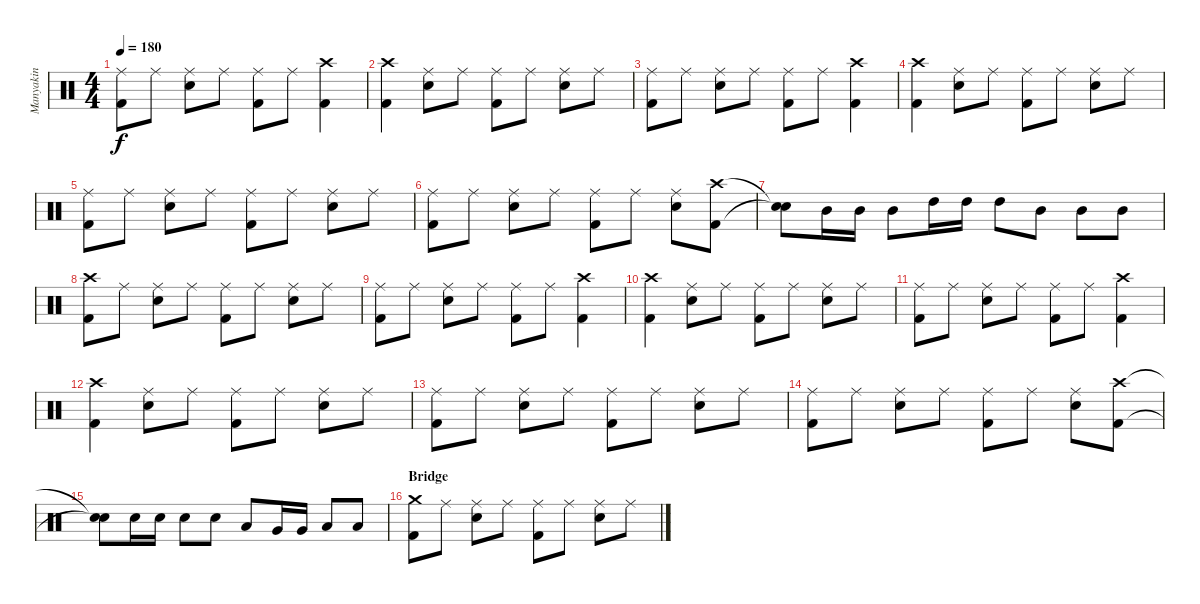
\track ("Manyakin" "Manyakin") {instrument percussion}
\staff {score}
\articulation defaults
\ts (4 4)
\tempo 180
\clef neutral
\ks c
("Kick (hit) 2" "Ride (middle)").8{dy f} "Ride (middle)".8 ("Snare (hit) 2" "Ride (middle)").8 "Ride (middle)".8 ("Kick (hit) 2" "Ride (middle)").8 "Ride (middle)".8 ("Kick (hit) 2" "Crash high (hit)").4 |
("Kick (hit) 2" "Crash high (hit)").4 ("Snare (hit) 2" "Ride (middle)").8 "Ride (middle)".8 ("Kick (hit) 2" "Ride (middle)").8 "Ride (middle)".8 ("Snare (hit) 2" "Ride (middle)").8 "Ride (middle)".8 |
("Kick (hit) 2" "Ride (middle)").8 "Ride (middle)".8 ("Snare (hit) 2" "Ride (middle)").8 "Ride (middle)".8 ("Kick (hit) 2" "Ride (middle)").8 "Ride (middle)".8 ("Kick (hit) 2" "Crash high (hit)").4 |
("Kick (hit) 2" "Crash high (hit)").4 ("Snare (hit) 2" "Ride (middle)").8 "Ride (middle)".8 ("Kick (hit) 2" "Ride (middle)").8 "Ride (middle)".8 ("Snare (hit) 2" "Ride (middle)").8 "Ride (middle)".8 |
("Kick (hit) 2" "Ride (middle)").8 "Ride (middle)".8 ("Snare (hit) 2" "Ride (middle)").8 "Ride (middle)".8 ("Kick (hit) 2" "Ride (middle)").8 "Ride (middle)".8 ("Snare (hit) 2" "Ride (middle)").8 "Ride (middle)".8 |
("Kick (hit) 2" "Ride (middle)").8 "Ride (middle)".8 ("Snare (hit) 2" "Ride (middle)").8 "Ride (middle)".8 ("Kick (hit) 2" "Ride (middle)").8 "Ride (middle)".8 ("Snare (hit) 2" "Ride (middle)").8 ("Kick (hit) 2" "Crash high (hit)").8 |
("Snare (hit)"{t} "Snare (hit)"{t}).8 "Mid Tom (hit)".16 "Mid Tom (hit)".16 "Mid Tom (hit)".8 "High Tom (hit)".16 "High Tom (hit)".16 "High Tom (hit)".8 "Mid Tom (hit)".8 "Mid Tom (hit)".8 "Mid Tom (hit)".8 |
("Kick (hit) 2" "Crash high (hit)").8 "Ride (middle)".8 ("Snare (hit) 2" "Ride (middle)").8 "Ride (middle)".8 ("Kick (hit) 2" "Ride (middle)").8 "Ride (middle)".8 ("Snare (hit) 2" "Ride (middle)").8 "Ride (middle)".8 |
("Kick (hit) 2" "Ride (middle)").8 "Ride (middle)".8 ("Snare (hit) 2" "Ride (middle)").8 "Ride (middle)".8 ("Kick (hit) 2" "Ride (middle)").8 "Ride (middle)".8 ("Kick (hit) 2" "Crash high (hit)").4 |
("Kick (hit) 2" "Crash high (hit)").4 ("Snare (hit) 2" "Ride (middle)").8 "Ride (middle)".8 ("Kick (hit) 2" "Ride (middle)").8 "Ride (middle)".8 ("Snare (hit) 2" "Ride (middle)").8 "Ride (middle)".8 |
("Kick (hit) 2" "Ride (middle)").8 "Ride (middle)".8 ("Snare (hit) 2" "Ride (middle)").8 "Ride (middle)".8 ("Kick (hit) 2" "Ride (middle)").8 "Ride (middle)".8 ("Kick (hit) 2" "Crash high (hit)").4 |
("Kick (hit) 2" "Crash high (hit)").4 ("Snare (hit) 2" "Ride (middle)").8 "Ride (middle)".8 ("Kick (hit) 2" "Ride (middle)").8 "Ride (middle)".8 ("Snare (hit) 2" "Ride (middle)").8 "Ride (middle)".8 |
("Kick (hit) 2" "Ride (middle)").8 "Ride (middle)".8 ("Snare (hit) 2" "Ride (middle)").8 "Ride (middle)".8 ("Kick (hit) 2" "Ride (middle)").8 "Ride (middle)".8 ("Snare (hit) 2" "Ride (middle)").8 "Ride (middle)".8 |
("Kick (hit) 2" "Ride (middle)").8 "Ride (middle)".8 ("Snare (hit) 2" "Ride (middle)").8 "Ride (middle)".8 ("Kick (hit) 2" "Ride (middle)").8 "Ride (middle)".8 ("Snare (hit) 2" "Ride (middle)").8 ("Kick (hit) 2" "Crash high (hit)").8 |
("Snare (hit)"{t} "Snare (hit)"{t}).8 "Electric Snare (hit)".16 "Snare (hit) 2".16 "Snare (hit) 2".8 "Snare (hit) 2".8 "Low Tom (hit)".8 "Very Low Tom (hit)".16 "Very Low Tom (hit)".16 "Low Floor Tom (hit)".8 "Low Floor Tom (hit)".8 |
\section ("" "Bridge")
("Kick (hit) 2" "Crash medium (hit)").8 "Ride (middle)".8 ("Snare (hit) 2" "Ride (middle)").8 "Ride (middle)".8 ("Kick (hit) 2" "Ride (middle)").8 "Ride (middle)".8 ("Snare (hit) 2" "Ride (middle)").8 "Ride (middle)".8
